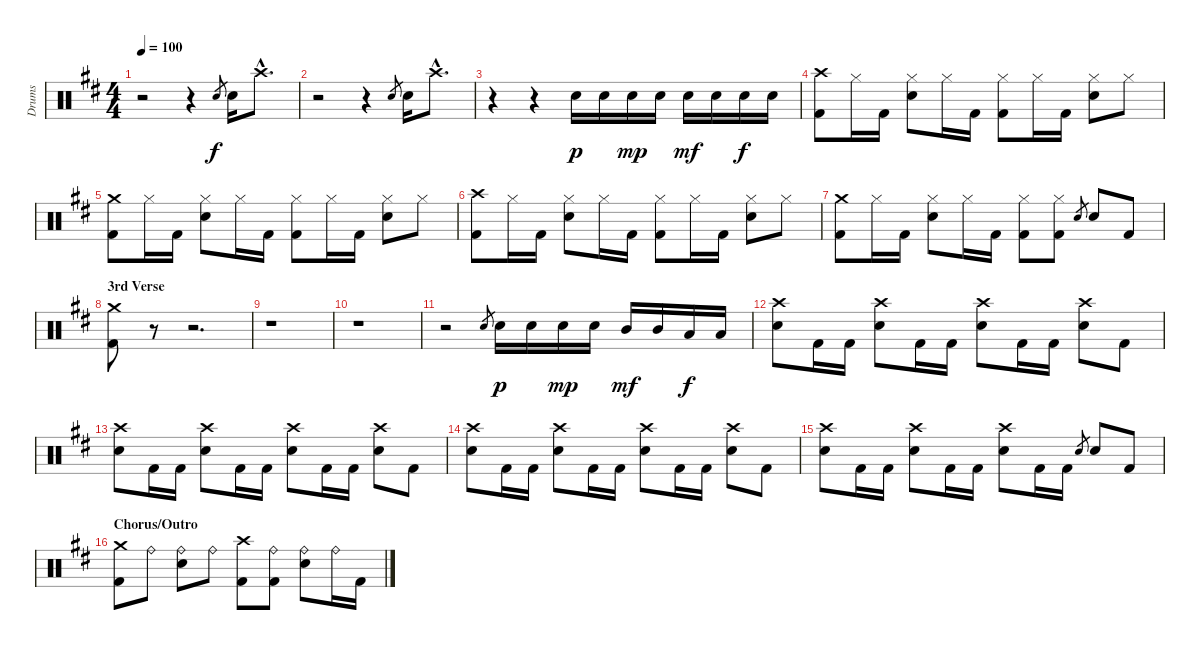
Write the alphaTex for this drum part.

\track ("Drums" "Drums") {instrument percussion}
\staff {score}
\articulation defaults
\ts (4 4)
\tempo 100
\clef neutral
\ks bminor
r.2{dy f} r.4 "Snare (hit) 2".8{gr} "Snare (hit) 2".16 "Crash high (hit)"{hac}.8{d} |
r.2 r.4 "Snare (hit) 2".8{gr} "Snare (hit) 2".16 "Crash high (hit)"{hac}.8{d} |
r.4 r.4 "Snare (hit) 2".16{dy p} "Snare (hit) 2".16 "Snare (hit) 2".16{dy mp} "Snare (hit) 2".16 "Snare (hit) 2".16{dy mf} "Snare (hit) 2".16 "Snare (hit) 2".16{dy f} "Snare (hit) 2".16 |
("Crash high (hit)" "Kick (hit) 2").8 "Hi-Hat (closed)".16 "Kick (hit) 2".16 ("Hi-Hat (closed)" "Snare (hit) 2").8 "Hi-Hat (closed)".16 "Kick (hit) 2".16 ("Hi-Hat (closed)" "Kick (hit) 2").8 "Hi-Hat (closed)".16 "Kick (hit) 2".16 ("Hi-Hat (closed)" "Snare (hit) 2").8 "Hi-Hat (closed)".8 |
("Crash medium (hit)" "Kick (hit) 2").8 "Hi-Hat (closed)".16 "Kick (hit) 2".16 ("Hi-Hat (closed)" "Snare (hit) 2").8 "Hi-Hat (closed)".16 "Kick (hit) 2".16 ("Hi-Hat (closed)" "Kick (hit) 2").8 "Hi-Hat (closed)".16 "Kick (hit) 2".16 ("Hi-Hat (closed)" "Snare (hit) 2").8 "Hi-Hat (closed)".8 |
("Crash high (hit)" "Kick (hit) 2").8 "Hi-Hat (closed)".16 "Kick (hit) 2".16 ("Hi-Hat (closed)" "Snare (hit) 2").8 "Hi-Hat (closed)".16 "Kick (hit) 2".16 ("Hi-Hat (closed)" "Kick (hit) 2").8 "Hi-Hat (closed)".16 "Kick (hit) 2".16 ("Hi-Hat (closed)" "Snare (hit) 2").8 "Hi-Hat (closed)".8 |
("Crash medium (hit)" "Kick (hit) 2").8 "Hi-Hat (closed)".16 "Kick (hit) 2".16 ("Hi-Hat (closed)" "Snare (hit) 2").8 "Hi-Hat (closed)".16 "Kick (hit) 2".16 ("Hi-Hat (closed)" "Kick (hit) 2").8 ("Hi-Hat (closed)" "Kick (hit) 2").8 "Snare (hit) 2".8{gr} "Snare (hit) 2".8 "Kick (hit) 2".8 |
\section ("" "3rd Verse")
("Crash medium (hit)" "Kick (hit) 2").8 r.8 r.2{d} |
r.1 |
r.1 |
r.2 "Snare (hit) 2".8{gr} "Snare (hit) 2".16{dy p} "Snare (hit) 2".16 "Snare (hit) 2".16{dy mp} "Snare (hit) 2".16 "Mid Tom (hit)".16{dy mf} "Mid Tom (hit)".16 "Low Tom (hit)".16{dy f} "Low Tom (hit)".16 |
("Crash high (hit)" "Snare (hit) 2").8 "Kick (hit) 2".16 "Kick (hit) 2".16 ("Crash high (hit)" "Snare (hit) 2").8 "Kick (hit) 2".16 "Kick (hit) 2".16 ("Crash high (hit)" "Snare (hit) 2").8 "Kick (hit) 2".16 "Kick (hit) 2".16 ("Crash high (hit)" "Snare (hit) 2").8 "Kick (hit) 2".8 |
("Crash high (hit)" "Snare (hit) 2").8 "Kick (hit) 2".16 "Kick (hit) 2".16 ("Crash high (hit)" "Snare (hit) 2").8 "Kick (hit) 2".16 "Kick (hit) 2".16 ("Crash high (hit)" "Snare (hit) 2").8 "Kick (hit) 2".16 "Kick (hit) 2".16 ("Crash high (hit)" "Snare (hit) 2").8 "Kick (hit) 2".8 |
("Crash high (hit)" "Snare (hit) 2").8 "Kick (hit) 2".16 "Kick (hit) 2".16 ("Crash high (hit)" "Snare (hit) 2").8 "Kick (hit) 2".16 "Kick (hit) 2".16 ("Crash high (hit)" "Snare (hit) 2").8 "Kick (hit) 2".16 "Kick (hit) 2".16 ("Crash high (hit)" "Snare (hit) 2").8 "Kick (hit) 2".8 |
("Crash high (hit)" "Snare (hit) 2").8 "Kick (hit) 2".16 "Kick (hit) 2".16 ("Crash high (hit)" "Snare (hit) 2").8 "Kick (hit) 2".16 "Kick (hit) 2".16 ("Crash high (hit)" "Snare (hit) 2").8 "Kick (hit) 2".16 "Kick (hit) 2".16 "Snare (hit) 2".8{gr} "Snare (hit) 2".8 "Kick (hit) 2".8 |
\section ("" "Chorus/Outro")
("Crash medium (hit)" "Kick (hit) 2").8 "Ride (bell)".8 ("Ride (bell)" "Snare (hit) 2").8 "Ride (bell)".8 ("Crash high (hit)" "Kick (hit) 2").8 ("Ride (bell)" "Kick (hit) 2").8 ("Ride (bell)" "Snare (hit) 2").8 "Ride (bell)".16 "Kick (hit) 2".16
